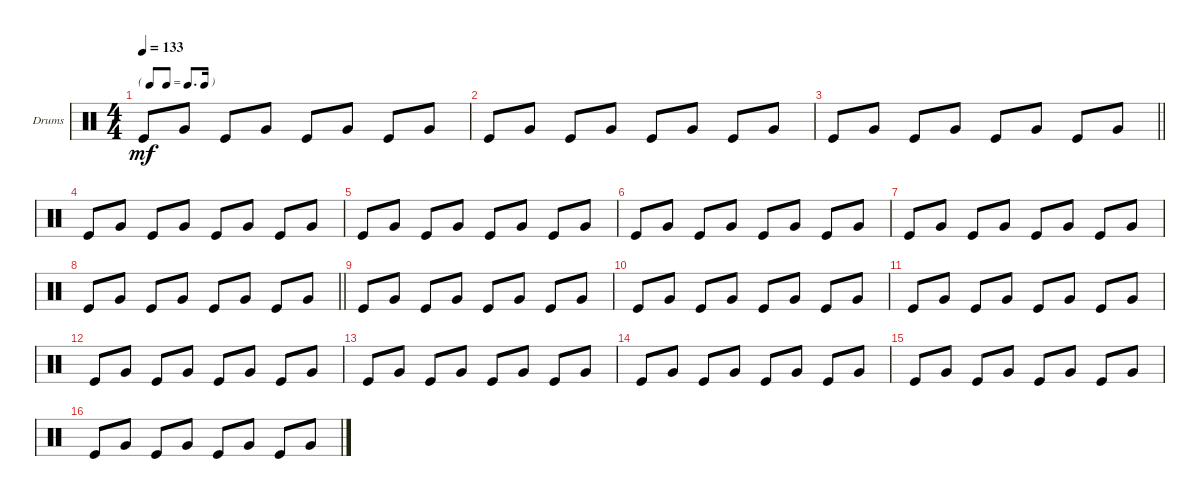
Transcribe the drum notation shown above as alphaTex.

\defaultSystemsLayout 4
\bracketExtendMode groupsimilarinstruments
\firstSystemTrackNameOrientation horizontal
\otherSystemsTrackNameOrientation horizontal
\track ("Drumkit" "Drums") {instrument percussion}
\staff {score}
\articulation defaults
\ts (4 4)
\tf dotted8th
\tempo 133
\clef neutral
\ks c "Kick (hit)".8{dy mf} "Very Low Tom (hit)".8 "Kick (hit)".8 "Very Low Tom (hit)".8 "Kick (hit)".8 "Very Low Tom (hit)".8 "Kick (hit)".8 "Very Low Tom (hit)".8
|
"Kick (hit)".8 "Very Low Tom (hit)".8 "Kick (hit)".8 "Very Low Tom (hit)".8 "Kick (hit)".8 "Very Low Tom (hit)".8 "Kick (hit)".8 "Very Low Tom (hit)".8 |
\barLineRight lightlight "Kick (hit)".8 "Very Low Tom (hit)".8 "Kick (hit)".8 "Very Low Tom (hit)".8 "Kick (hit)".8 "Very Low Tom (hit)".8 "Kick (hit)".8 "Very Low Tom (hit)".8
|
"Kick (hit)".8 "Very Low Tom (hit)".8 "Kick (hit)".8 "Very Low Tom (hit)".8 "Kick (hit)".8 "Very Low Tom (hit)".8 "Kick (hit)".8 "Very Low Tom (hit)".8 |
"Kick (hit)".8 "Very Low Tom (hit)".8 "Kick (hit)".8 "Very Low Tom (hit)".8 "Kick (hit)".8 "Very Low Tom (hit)".8 "Kick (hit)".8 "Very Low Tom (hit)".8 |
"Kick (hit)".8 "Very Low Tom (hit)".8 "Kick (hit)".8 "Very Low Tom (hit)".8 "Kick (hit)".8 "Very Low Tom (hit)".8 "Kick (hit)".8 "Very Low Tom (hit)".8 |
"Kick (hit)".8 "Very Low Tom (hit)".8 "Kick (hit)".8 "Very Low Tom (hit)".8 "Kick (hit)".8 "Very Low Tom (hit)".8 "Kick (hit)".8 "Very Low Tom (hit)".8 |
\barLineRight lightlight "Kick (hit)".8 "Very Low Tom (hit)".8 "Kick (hit)".8 "Very Low Tom (hit)".8 "Kick (hit)".8 "Very Low Tom (hit)".8 "Kick (hit)".8 "Very Low Tom (hit)".8
|
"Kick (hit)".8 "Very Low Tom (hit)".8 "Kick (hit)".8 "Very Low Tom (hit)".8 "Kick (hit)".8 "Very Low Tom (hit)".8 "Kick (hit)".8 "Very Low Tom (hit)".8 |
"Kick (hit)".8 "Very Low Tom (hit)".8 "Kick (hit)".8 "Very Low Tom (hit)".8 "Kick (hit)".8 "Very Low Tom (hit)".8 "Kick (hit)".8 "Very Low Tom (hit)".8 |
"Kick (hit)".8 "Very Low Tom (hit)".8 "Kick (hit)".8 "Very Low Tom (hit)".8 "Kick (hit)".8 "Very Low Tom (hit)".8 "Kick (hit)".8 "Very Low Tom (hit)".8 |
"Kick (hit)".8 "Very Low Tom (hit)".8 "Kick (hit)".8 "Very Low Tom (hit)".8 "Kick (hit)".8 "Very Low Tom (hit)".8 "Kick (hit)".8 "Very Low Tom (hit)".8 |
"Kick (hit)".8 "Very Low Tom (hit)".8 "Kick (hit)".8 "Very Low Tom (hit)".8 "Kick (hit)".8 "Very Low Tom (hit)".8 "Kick (hit)".8 "Very Low Tom (hit)".8 |
"Kick (hit)".8 "Very Low Tom (hit)".8 "Kick (hit)".8 "Very Low Tom (hit)".8 "Kick (hit)".8 "Very Low Tom (hit)".8 "Kick (hit)".8 "Very Low Tom (hit)".8 |
"Kick (hit)".8 "Very Low Tom (hit)".8 "Kick (hit)".8 "Very Low Tom (hit)".8 "Kick (hit)".8 "Very Low Tom (hit)".8 "Kick (hit)".8 "Very Low Tom (hit)".8 |
"Kick (hit)".8 "Very Low Tom (hit)".8 "Kick (hit)".8 "Very Low Tom (hit)".8 "Kick (hit)".8 "Very Low Tom (hit)".8 "Kick (hit)".8 "Very Low Tom (hit)".8
